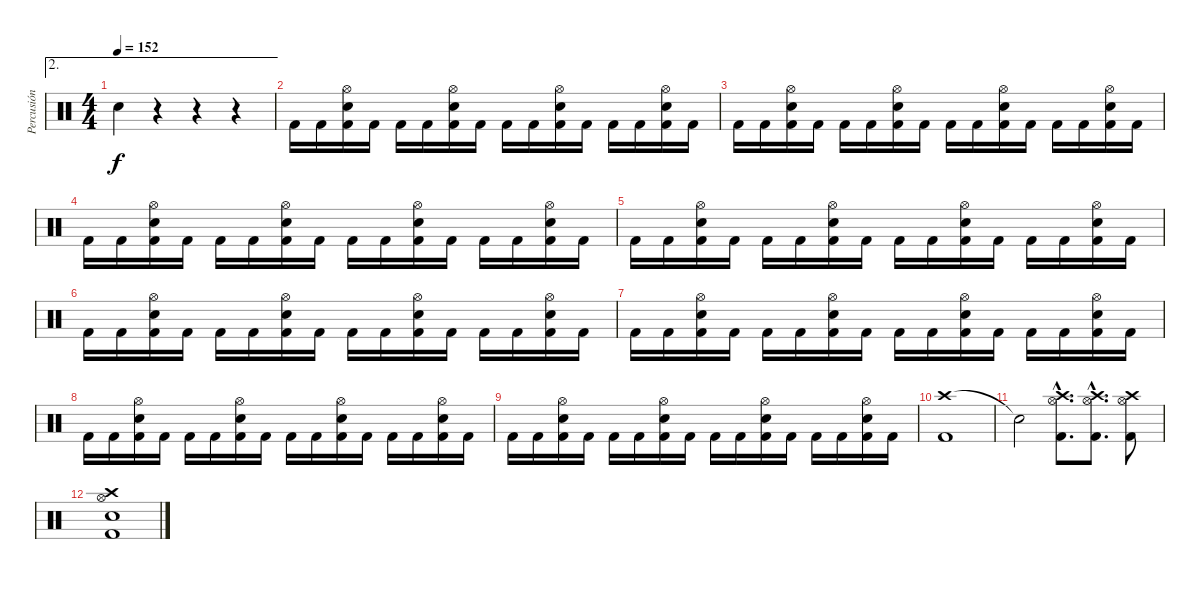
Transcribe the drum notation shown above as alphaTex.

\track ("Percusión" "Percusión") {instrument percussion}
\staff {score}
\articulation defaults
\ae 2
\ts (4 4)
\tempo 152
\clef neutral
\ks c "Snare (hit) 2".4{dy f}
r.4 r.4 r.4 |
"Kick (hit) 2".16 "Kick (hit) 2".16 ("Hi-Hat (open)" "Snare (hit) 2" "Kick (hit) 2").16 "Kick (hit) 2".16 "Kick (hit) 2".16 "Kick (hit) 2".16 ("Hi-Hat (open)" "Snare (hit) 2" "Kick (hit) 2").16 "Kick (hit) 2".16 "Kick (hit) 2".16 "Kick (hit) 2".16 ("Hi-Hat (open)" "Snare (hit) 2" "Kick (hit) 2").16 "Kick (hit) 2".16 "Kick (hit) 2".16 "Kick (hit) 2".16 ("Hi-Hat (open)" "Snare (hit) 2" "Kick (hit) 2").16 "Kick (hit) 2".16 |
"Kick (hit) 2".16 "Kick (hit) 2".16 ("Hi-Hat (open)" "Snare (hit) 2" "Kick (hit) 2").16 "Kick (hit) 2".16 "Kick (hit) 2".16 "Kick (hit) 2".16 ("Hi-Hat (open)" "Snare (hit) 2" "Kick (hit) 2").16 "Kick (hit) 2".16 "Kick (hit) 2".16 "Kick (hit) 2".16 ("Hi-Hat (open)" "Snare (hit) 2" "Kick (hit) 2").16 "Kick (hit) 2".16 "Kick (hit) 2".16 "Kick (hit) 2".16 ("Hi-Hat (open)" "Snare (hit) 2" "Kick (hit) 2").16 "Kick (hit) 2".16 |
"Kick (hit) 2".16 "Kick (hit) 2".16 ("Hi-Hat (open)" "Snare (hit) 2" "Kick (hit) 2").16 "Kick (hit) 2".16 "Kick (hit) 2".16 "Kick (hit) 2".16 ("Hi-Hat (open)" "Snare (hit) 2" "Kick (hit) 2").16 "Kick (hit) 2".16 "Kick (hit) 2".16 "Kick (hit) 2".16 ("Hi-Hat (open)" "Snare (hit) 2" "Kick (hit) 2").16 "Kick (hit) 2".16 "Kick (hit) 2".16 "Kick (hit) 2".16 ("Hi-Hat (open)" "Snare (hit) 2" "Kick (hit) 2").16 "Kick (hit) 2".16 |
"Kick (hit) 2".16 "Kick (hit) 2".16 ("Hi-Hat (open)" "Snare (hit) 2" "Kick (hit) 2").16 "Kick (hit) 2".16 "Kick (hit) 2".16 "Kick (hit) 2".16 ("Hi-Hat (open)" "Snare (hit) 2" "Kick (hit) 2").16 "Kick (hit) 2".16 "Kick (hit) 2".16 "Kick (hit) 2".16 ("Hi-Hat (open)" "Snare (hit) 2" "Kick (hit) 2").16 "Kick (hit) 2".16 "Kick (hit) 2".16 "Kick (hit) 2".16 ("Hi-Hat (open)" "Snare (hit) 2" "Kick (hit) 2").16 "Kick (hit) 2".16 |
"Kick (hit) 2".16 "Kick (hit) 2".16 ("Hi-Hat (open)" "Snare (hit) 2" "Kick (hit) 2").16 "Kick (hit) 2".16 "Kick (hit) 2".16 "Kick (hit) 2".16 ("Hi-Hat (open)" "Snare (hit) 2" "Kick (hit) 2").16 "Kick (hit) 2".16 "Kick (hit) 2".16 "Kick (hit) 2".16 ("Hi-Hat (open)" "Snare (hit) 2" "Kick (hit) 2").16 "Kick (hit) 2".16 "Kick (hit) 2".16 "Kick (hit) 2".16 ("Hi-Hat (open)" "Snare (hit) 2" "Kick (hit) 2").16 "Kick (hit) 2".16 |
"Kick (hit) 2".16 "Kick (hit) 2".16 ("Hi-Hat (open)" "Snare (hit) 2" "Kick (hit) 2").16 "Kick (hit) 2".16 "Kick (hit) 2".16 "Kick (hit) 2".16 ("Hi-Hat (open)" "Snare (hit) 2" "Kick (hit) 2").16 "Kick (hit) 2".16 "Kick (hit) 2".16 "Kick (hit) 2".16 ("Hi-Hat (open)" "Snare (hit) 2" "Kick (hit) 2").16 "Kick (hit) 2".16 "Kick (hit) 2".16 "Kick (hit) 2".16 ("Hi-Hat (open)" "Snare (hit) 2" "Kick (hit) 2").16 "Kick (hit) 2".16 |
"Kick (hit) 2".16 "Kick (hit) 2".16 ("Hi-Hat (open)" "Snare (hit) 2" "Kick (hit) 2").16 "Kick (hit) 2".16 "Kick (hit) 2".16 "Kick (hit) 2".16 ("Hi-Hat (open)" "Snare (hit) 2" "Kick (hit) 2").16 "Kick (hit) 2".16 "Kick (hit) 2".16 "Kick (hit) 2".16 ("Hi-Hat (open)" "Snare (hit) 2" "Kick (hit) 2").16 "Kick (hit) 2".16 "Kick (hit) 2".16 "Kick (hit) 2".16 ("Hi-Hat (open)" "Snare (hit) 2" "Kick (hit) 2").16 "Kick (hit) 2".16 |
"Kick (hit) 2".16 "Kick (hit) 2".16 ("Hi-Hat (open)" "Snare (hit) 2" "Kick (hit) 2").16 "Kick (hit) 2".16 "Kick (hit) 2".16 "Kick (hit) 2".16 ("Hi-Hat (open)" "Snare (hit) 2" "Kick (hit) 2").16 "Kick (hit) 2".16 "Kick (hit) 2".16 "Kick (hit) 2".16 ("Hi-Hat (open)" "Snare (hit) 2" "Kick (hit) 2").16 "Kick (hit) 2".16 "Kick (hit) 2".16 "Kick (hit) 2".16 ("Hi-Hat (open)" "Snare (hit) 2" "Kick (hit) 2").16 "Kick (hit) 2".16 |
("Crash high (hit)" "Kick (hit) 2").1 |
"Snare (hit)"{t}.2 ("Crash high (hit)"{hac} "Hi-Hat (open)"{hac} "Kick (hit) 2"{hac}).8{d} ("Crash high (hit)"{hac} "Hi-Hat (open)"{hac} "Kick (hit) 2"{hac}).8{d} ("Crash high (hit)" "Hi-Hat (open)" "Kick (hit) 2").8 |
("Crash high (hit)" "Hi-Hat (open)" "Snare (hit) 2" "Kick (hit) 2").1
